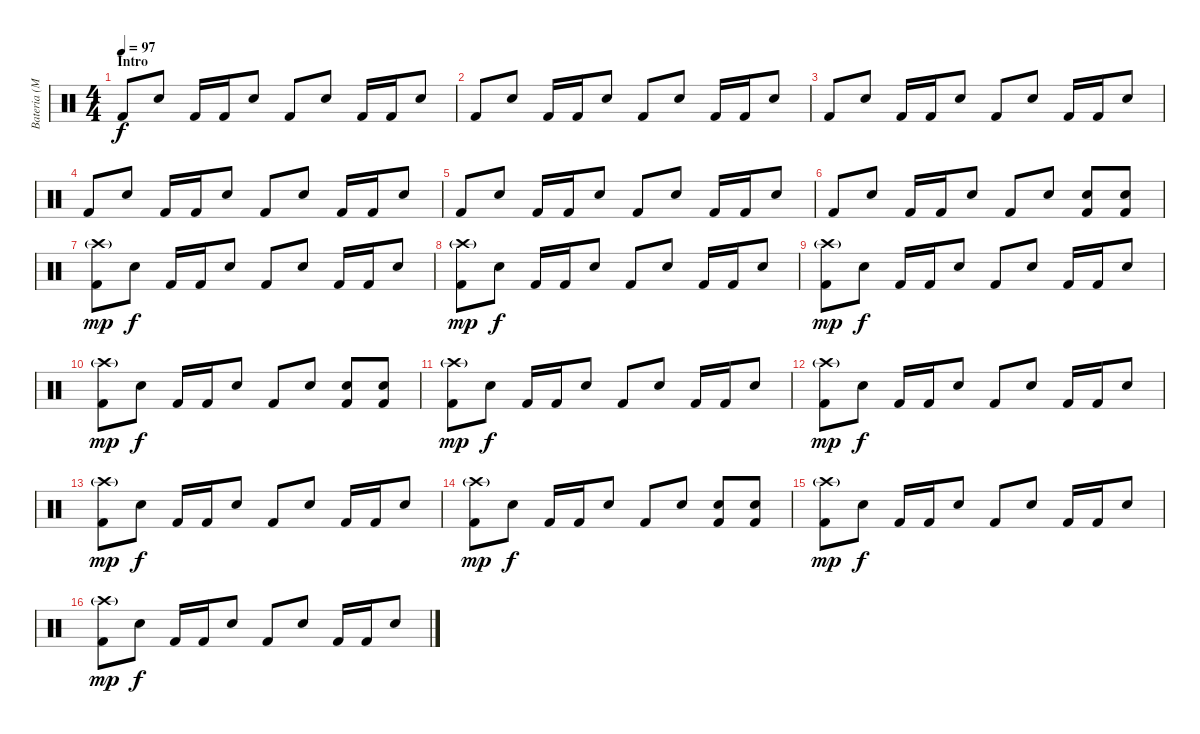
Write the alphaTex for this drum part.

\track ("Bateria (Marcelo)" "Bateria (M") {instrument percussion}
\staff {score}
\articulation defaults
\ts (4 4)
\section ("" "Intro")
\tempo 97
\clef neutral
\ks c "Kick (hit) 2".8{dy f} "Snare (hit) 2".8 "Kick (hit) 2".16 "Kick (hit) 2".16 "Snare (hit) 2".8 "Kick (hit) 2".8{volume 6} "Snare (hit) 2".8 "Kick (hit) 2".16 "Kick (hit) 2".16 "Snare (hit) 2".8
|
"Kick (hit) 2".8{volume 7} "Snare (hit) 2".8 "Kick (hit) 2".16 "Kick (hit) 2".16 "Snare (hit) 2".8 "Kick (hit) 2".8{volume 8} "Snare (hit) 2".8 "Kick (hit) 2".16 "Kick (hit) 2".16 "Snare (hit) 2".8 |
"Kick (hit) 2".8{volume 9} "Snare (hit) 2".8 "Kick (hit) 2".16 "Kick (hit) 2".16 "Snare (hit) 2".8 "Kick (hit) 2".8 "Snare (hit) 2".8 "Kick (hit) 2".16 "Kick (hit) 2".16 "Snare (hit) 2".8 |
"Kick (hit) 2".8 "Snare (hit) 2".8 "Kick (hit) 2".16 "Kick (hit) 2".16 "Snare (hit) 2".8 "Kick (hit) 2".8 "Snare (hit) 2".8 "Kick (hit) 2".16 "Kick (hit) 2".16 "Snare (hit) 2".8 |
"Kick (hit) 2".8 "Snare (hit) 2".8 "Kick (hit) 2".16 "Kick (hit) 2".16 "Snare (hit) 2".8 "Kick (hit) 2".8 "Snare (hit) 2".8 "Kick (hit) 2".16 "Kick (hit) 2".16 "Snare (hit) 2".8 |
"Kick (hit) 2".8 "Snare (hit) 2".8 "Kick (hit) 2".16 "Kick (hit) 2".16 "Snare (hit) 2".8 "Kick (hit) 2".8 "Snare (hit) 2".8 ("Kick (hit) 2" "Snare (hit) 2").8 ("Kick (hit) 2" "Snare (hit) 2").8 |
("Kick (hit) 2" "Crash high (hit)"{g}).8{dy mp volume 9} "Snare (hit) 2".8{dy f} "Kick (hit) 2".16 "Kick (hit) 2".16 "Snare (hit) 2".8 "Kick (hit) 2".8 "Snare (hit) 2".8 "Kick (hit) 2".16 "Kick (hit) 2".16 "Snare (hit) 2".8 |
("Kick (hit) 2" "Crash high (hit)"{g}).8{dy mp} "Snare (hit) 2".8{dy f} "Kick (hit) 2".16 "Kick (hit) 2".16 "Snare (hit) 2".8 "Kick (hit) 2".8 "Snare (hit) 2".8 "Kick (hit) 2".16 "Kick (hit) 2".16 "Snare (hit) 2".8 |
("Kick (hit) 2" "Crash high (hit)"{g}).8{dy mp} "Snare (hit) 2".8{dy f} "Kick (hit) 2".16 "Kick (hit) 2".16 "Snare (hit) 2".8 "Kick (hit) 2".8 "Snare (hit) 2".8 "Kick (hit) 2".16 "Kick (hit) 2".16 "Snare (hit) 2".8 |
("Kick (hit) 2" "Crash high (hit)"{g}).8{dy mp} "Snare (hit) 2".8{dy f} "Kick (hit) 2".16 "Kick (hit) 2".16 "Snare (hit) 2".8 "Kick (hit) 2".8 "Snare (hit) 2".8 ("Kick (hit) 2" "Snare (hit) 2").8 ("Kick (hit) 2" "Snare (hit) 2").8 |
("Kick (hit) 2" "Crash high (hit)"{g}).8{dy mp volume 9} "Snare (hit) 2".8{dy f} "Kick (hit) 2".16 "Kick (hit) 2".16 "Snare (hit) 2".8 "Kick (hit) 2".8 "Snare (hit) 2".8 "Kick (hit) 2".16 "Kick (hit) 2".16 "Snare (hit) 2".8 |
("Kick (hit) 2" "Crash high (hit)"{g}).8{dy mp} "Snare (hit) 2".8{dy f} "Kick (hit) 2".16 "Kick (hit) 2".16 "Snare (hit) 2".8 "Kick (hit) 2".8 "Snare (hit) 2".8 "Kick (hit) 2".16 "Kick (hit) 2".16 "Snare (hit) 2".8 |
("Kick (hit) 2" "Crash high (hit)"{g}).8{dy mp} "Snare (hit) 2".8{dy f} "Kick (hit) 2".16 "Kick (hit) 2".16 "Snare (hit) 2".8 "Kick (hit) 2".8 "Snare (hit) 2".8 "Kick (hit) 2".16 "Kick (hit) 2".16 "Snare (hit) 2".8 |
("Kick (hit) 2" "Crash high (hit)"{g}).8{dy mp} "Snare (hit) 2".8{dy f} "Kick (hit) 2".16 "Kick (hit) 2".16 "Snare (hit) 2".8 "Kick (hit) 2".8 "Snare (hit) 2".8 ("Kick (hit) 2" "Snare (hit) 2").8 ("Kick (hit) 2" "Snare (hit) 2").8 |
("Kick (hit) 2" "Crash high (hit)"{g}).8{dy mp volume 9} "Snare (hit) 2".8{dy f} "Kick (hit) 2".16 "Kick (hit) 2".16 "Snare (hit) 2".8 "Kick (hit) 2".8 "Snare (hit) 2".8 "Kick (hit) 2".16 "Kick (hit) 2".16 "Snare (hit) 2".8 |
("Kick (hit) 2" "Crash high (hit)"{g}).8{dy mp} "Snare (hit) 2".8{dy f} "Kick (hit) 2".16 "Kick (hit) 2".16 "Snare (hit) 2".8 "Kick (hit) 2".8 "Snare (hit) 2".8 "Kick (hit) 2".16 "Kick (hit) 2".16 "Snare (hit) 2".8
